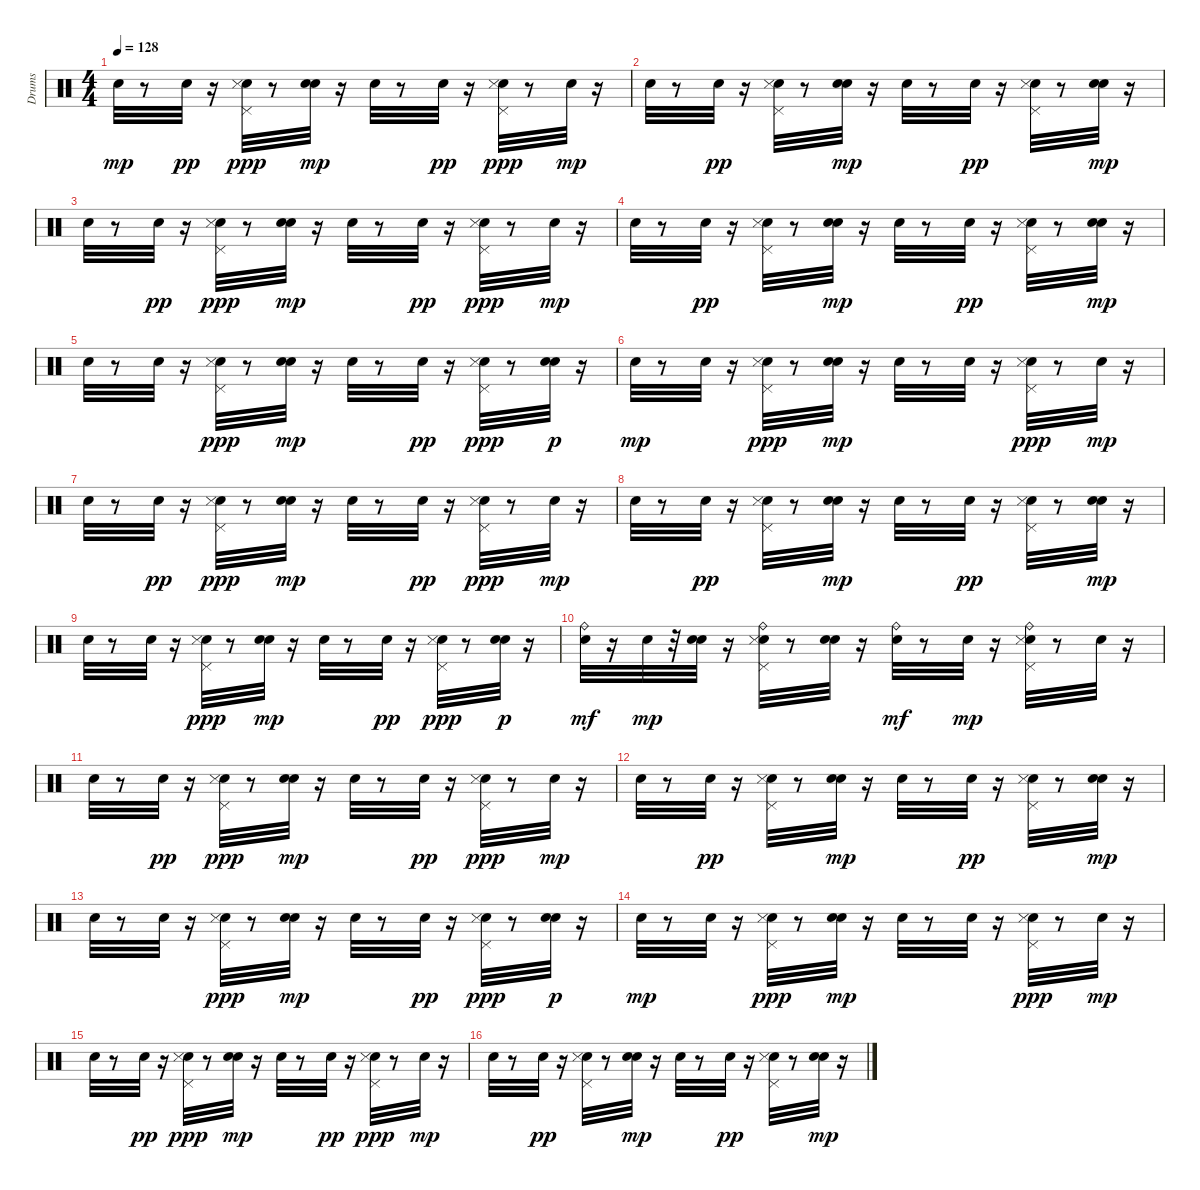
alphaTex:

\track ("Drums" "Drums") {instrument percussion}
\staff {score}
\articulation defaults
\ts (4 4)
\tempo 128
\clef neutral
\ks c "Snare (hit)".32{dy mp}
r.8 "Snare (hit)".32{dy pp} r.16 ("Pedal Hi-Hat (hit)" "Snare (hit)" "Snare (side stick) 3").32{dy ppp} r.8 ("Snare (hit)" "Snare (hit)").32{dy mp} r.16 "Snare (hit)".32 r.8 "Snare (hit)".32{dy pp} r.16 ("Pedal Hi-Hat (hit)" "Snare (hit)" "Snare (side stick) 3").32{dy ppp} r.8 "Snare (hit)".32{dy mp} r.16 |
"Snare (hit)".32 r.8 "Snare (hit)".32{dy pp} r.16 ("Pedal Hi-Hat (hit)" "Snare (hit)" "Snare (side stick) 3").32 r.8 ("Snare (hit)" "Snare (hit)").32{dy mp} r.16 "Snare (hit)".32 r.8 "Snare (hit)".32{dy pp} r.16 ("Pedal Hi-Hat (hit)" "Snare (hit)" "Snare (side stick) 3").32 r.8 ("Snare (hit)" "Snare (hit)").32{dy mp} r.16 |
"Snare (hit)".32 r.8 "Snare (hit)".32{dy pp} r.16 ("Pedal Hi-Hat (hit)" "Snare (hit)" "Snare (side stick) 3").32{dy ppp} r.8 ("Snare (hit)" "Snare (hit)").32{dy mp} r.16 "Snare (hit)".32 r.8 "Snare (hit)".32{dy pp} r.16 ("Pedal Hi-Hat (hit)" "Snare (hit)" "Snare (side stick) 3").32{dy ppp} r.8 "Snare (hit)".32{dy mp} r.16 |
"Snare (hit)".32 r.8 "Snare (hit)".32{dy pp} r.16 ("Pedal Hi-Hat (hit)" "Snare (hit)" "Snare (side stick) 3").32 r.8 ("Snare (hit)" "Snare (hit)").32{dy mp} r.16 "Snare (hit)".32 r.8 "Snare (hit)".32{dy pp} r.16 ("Pedal Hi-Hat (hit)" "Snare (hit)" "Snare (side stick) 3").32 r.8 ("Snare (hit)" "Snare (hit)").32{dy mp} r.16 |
"Snare (hit)".32 r.8 "Snare (hit)".32 r.16 ("Pedal Hi-Hat (hit)" "Snare (hit)" "Snare (side stick) 3").32{dy ppp} r.8 ("Snare (hit)" "Snare (hit)").32{dy mp} r.16 "Snare (hit)".32 r.8 "Snare (hit)".32{dy pp} r.16 ("Pedal Hi-Hat (hit)" "Snare (hit)" "Snare (side stick) 3").32{dy ppp} r.8 ("Snare (hit)" "Snare (hit)").32{dy p} r.16 |
"Snare (hit)".32{dy mp} r.8 "Snare (hit)".32 r.16 ("Pedal Hi-Hat (hit)" "Snare (hit)" "Snare (side stick) 3").32{dy ppp} r.8 ("Snare (hit)" "Snare (hit)").32{dy mp} r.16 "Snare (hit)".32 r.8 "Snare (hit)".32 r.16 ("Pedal Hi-Hat (hit)" "Snare (hit)" "Snare (side stick) 3").32{dy ppp} r.8 "Snare (hit)".32{dy mp} r.16 |
"Snare (hit)".32 r.8 "Snare (hit)".32{dy pp} r.16 ("Pedal Hi-Hat (hit)" "Snare (hit)" "Snare (side stick) 3").32{dy ppp} r.8 ("Snare (hit)" "Snare (hit)").32{dy mp} r.16 "Snare (hit)".32 r.8 "Snare (hit)".32{dy pp} r.16 ("Pedal Hi-Hat (hit)" "Snare (hit)" "Snare (side stick) 3").32{dy ppp} r.8 "Snare (hit)".32{dy mp} r.16 |
"Snare (hit)".32 r.8 "Snare (hit)".32{dy pp} r.16 ("Pedal Hi-Hat (hit)" "Snare (hit)" "Snare (side stick) 3").32 r.8 ("Snare (hit)" "Snare (hit)").32{dy mp} r.16 "Snare (hit)".32 r.8 "Snare (hit)".32{dy pp} r.16 ("Pedal Hi-Hat (hit)" "Snare (hit)" "Snare (side stick) 3").32 r.8 ("Snare (hit)" "Snare (hit)").32{dy mp} r.16 |
"Snare (hit)".32 r.8 "Snare (hit)".32 r.16 ("Pedal Hi-Hat (hit)" "Snare (hit)" "Snare (side stick) 3").32{dy ppp} r.8 ("Snare (hit)" "Snare (hit)").32{dy mp} r.16 "Snare (hit)".32 r.8 "Snare (hit)".32{dy pp} r.16 ("Pedal Hi-Hat (hit)" "Snare (hit)" "Snare (side stick) 3").32{dy ppp} r.8 ("Snare (hit)" "Snare (hit)").32{dy p} r.16 |
("Snare (hit)" "Ride (bell)").32{dy mf} r.16 "Snare (hit)".32{dy mp} r.32 ("Snare (hit)" "Snare (hit)").32 r.16 ("Pedal Hi-Hat (hit)" "Snare (hit)" "Snare (side stick) 3" "Ride (bell)").32 r.8 ("Snare (hit)" "Snare (hit)").32 r.16 ("Snare (hit)" "Ride (bell)").32{dy mf} r.8 "Snare (hit)".32{dy mp} r.16 ("Pedal Hi-Hat (hit)" "Snare (hit)" "Snare (side stick) 3" "Ride (bell)").32 r.8 "Snare (hit)".32 r.16 |
"Snare (hit)".32 r.8 "Snare (hit)".32{dy pp} r.16 ("Pedal Hi-Hat (hit)" "Snare (hit)" "Snare (side stick) 3").32{dy ppp} r.8 ("Snare (hit)" "Snare (hit)").32{dy mp} r.16 "Snare (hit)".32 r.8 "Snare (hit)".32{dy pp} r.16 ("Pedal Hi-Hat (hit)" "Snare (hit)" "Snare (side stick) 3").32{dy ppp} r.8 "Snare (hit)".32{dy mp} r.16 |
"Snare (hit)".32 r.8 "Snare (hit)".32{dy pp} r.16 ("Pedal Hi-Hat (hit)" "Snare (hit)" "Snare (side stick) 3").32 r.8 ("Snare (hit)" "Snare (hit)").32{dy mp} r.16 "Snare (hit)".32 r.8 "Snare (hit)".32{dy pp} r.16 ("Pedal Hi-Hat (hit)" "Snare (hit)" "Snare (side stick) 3").32 r.8 ("Snare (hit)" "Snare (hit)").32{dy mp} r.16 |
"Snare (hit)".32 r.8 "Snare (hit)".32 r.16 ("Pedal Hi-Hat (hit)" "Snare (hit)" "Snare (side stick) 3").32{dy ppp} r.8 ("Snare (hit)" "Snare (hit)").32{dy mp} r.16 "Snare (hit)".32 r.8 "Snare (hit)".32{dy pp} r.16 ("Pedal Hi-Hat (hit)" "Snare (hit)" "Snare (side stick) 3").32{dy ppp} r.8 ("Snare (hit)" "Snare (hit)").32{dy p} r.16 |
"Snare (hit)".32{dy mp} r.8 "Snare (hit)".32 r.16 ("Pedal Hi-Hat (hit)" "Snare (hit)" "Snare (side stick) 3").32{dy ppp} r.8 ("Snare (hit)" "Snare (hit)").32{dy mp} r.16 "Snare (hit)".32 r.8 "Snare (hit)".32 r.16 ("Pedal Hi-Hat (hit)" "Snare (hit)" "Snare (side stick) 3").32{dy ppp} r.8 "Snare (hit)".32{dy mp} r.16 |
"Snare (hit)".32 r.8 "Snare (hit)".32{dy pp} r.16 ("Pedal Hi-Hat (hit)" "Snare (hit)" "Snare (side stick) 3").32{dy ppp} r.8 ("Snare (hit)" "Snare (hit)").32{dy mp} r.16 "Snare (hit)".32 r.8 "Snare (hit)".32{dy pp} r.16 ("Pedal Hi-Hat (hit)" "Snare (hit)" "Snare (side stick) 3").32{dy ppp} r.8 "Snare (hit)".32{dy mp} r.16 |
"Snare (hit)".32 r.8 "Snare (hit)".32{dy pp} r.16 ("Pedal Hi-Hat (hit)" "Snare (hit)" "Snare (side stick) 3").32 r.8 ("Snare (hit)" "Snare (hit)").32{dy mp} r.16 "Snare (hit)".32 r.8 "Snare (hit)".32{dy pp} r.16 ("Pedal Hi-Hat (hit)" "Snare (hit)" "Snare (side stick) 3").32 r.8 ("Snare (hit)" "Snare (hit)").32{dy mp} r.16
